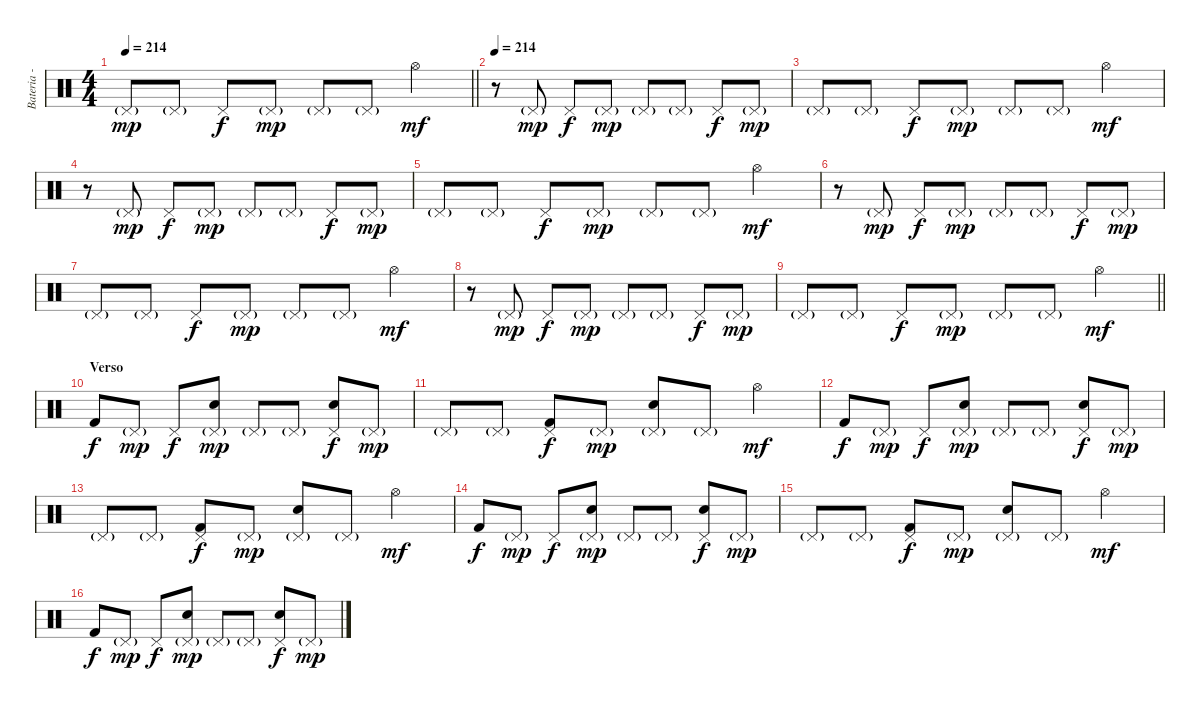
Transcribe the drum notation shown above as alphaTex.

\track ("Bateria - Larzon" "Bateria - ") {instrument percussion}
\staff {score}
\articulation defaults
\ts (4 4)
\tempo 214
\clef neutral
\barLineRight lightlight
\ks c "Pedal Hi-Hat (hit)"{g}.8{dy mp} "Pedal Hi-Hat (hit)"{g}.8 "Pedal Hi-Hat (hit)".8{dy f} "Pedal Hi-Hat (hit)"{g}.8{dy mp} "Pedal Hi-Hat (hit)"{g}.8 "Pedal Hi-Hat (hit)"{g}.8 "Hi-Hat (open)".4{dy mf}
|
\tempo 214
r.8 "Pedal Hi-Hat (hit)"{g}.8{dy mp} "Pedal Hi-Hat (hit)".8{dy f} "Pedal Hi-Hat (hit)"{g}.8{dy mp} "Pedal Hi-Hat (hit)"{g}.8 "Pedal Hi-Hat (hit)"{g}.8 "Pedal Hi-Hat (hit)".8{dy f} "Pedal Hi-Hat (hit)"{g}.8{dy mp} |
"Pedal Hi-Hat (hit)"{g}.8 "Pedal Hi-Hat (hit)"{g}.8 "Pedal Hi-Hat (hit)".8{dy f} "Pedal Hi-Hat (hit)"{g}.8{dy mp} "Pedal Hi-Hat (hit)"{g}.8 "Pedal Hi-Hat (hit)"{g}.8 "Hi-Hat (open)".4{dy mf} |
r.8 "Pedal Hi-Hat (hit)"{g}.8{dy mp} "Pedal Hi-Hat (hit)".8{dy f} "Pedal Hi-Hat (hit)"{g}.8{dy mp} "Pedal Hi-Hat (hit)"{g}.8 "Pedal Hi-Hat (hit)"{g}.8 "Pedal Hi-Hat (hit)".8{dy f} "Pedal Hi-Hat (hit)"{g}.8{dy mp} |
"Pedal Hi-Hat (hit)"{g}.8 "Pedal Hi-Hat (hit)"{g}.8 "Pedal Hi-Hat (hit)".8{dy f} "Pedal Hi-Hat (hit)"{g}.8{dy mp} "Pedal Hi-Hat (hit)"{g}.8 "Pedal Hi-Hat (hit)"{g}.8 "Hi-Hat (open)".4{dy mf} |
r.8 "Pedal Hi-Hat (hit)"{g}.8{dy mp} "Pedal Hi-Hat (hit)".8{dy f} "Pedal Hi-Hat (hit)"{g}.8{dy mp} "Pedal Hi-Hat (hit)"{g}.8 "Pedal Hi-Hat (hit)"{g}.8 "Pedal Hi-Hat (hit)".8{dy f} "Pedal Hi-Hat (hit)"{g}.8{dy mp} |
"Pedal Hi-Hat (hit)"{g}.8 "Pedal Hi-Hat (hit)"{g}.8 "Pedal Hi-Hat (hit)".8{dy f} "Pedal Hi-Hat (hit)"{g}.8{dy mp} "Pedal Hi-Hat (hit)"{g}.8 "Pedal Hi-Hat (hit)"{g}.8 "Hi-Hat (open)".4{dy mf} |
r.8 "Pedal Hi-Hat (hit)"{g}.8{dy mp} "Pedal Hi-Hat (hit)".8{dy f} "Pedal Hi-Hat (hit)"{g}.8{dy mp} "Pedal Hi-Hat (hit)"{g}.8 "Pedal Hi-Hat (hit)"{g}.8 "Pedal Hi-Hat (hit)".8{dy f} "Pedal Hi-Hat (hit)"{g}.8{dy mp} |
\barLineRight lightlight "Pedal Hi-Hat (hit)"{g}.8 "Pedal Hi-Hat (hit)"{g}.8 "Pedal Hi-Hat (hit)".8{dy f} "Pedal Hi-Hat (hit)"{g}.8{dy mp} "Pedal Hi-Hat (hit)"{g}.8 "Pedal Hi-Hat (hit)"{g}.8 "Hi-Hat (open)".4{dy mf}
|
\section ("" "Verso")
"Kick (hit) 2".8{dy f} "Pedal Hi-Hat (hit)"{g}.8{dy mp} "Pedal Hi-Hat (hit)".8{dy f} ("Pedal Hi-Hat (hit)"{g} "Electric Snare (hit)").8{dy mp} "Pedal Hi-Hat (hit)"{g}.8 "Pedal Hi-Hat (hit)"{g}.8 ("Pedal Hi-Hat (hit)" "Electric Snare (hit)").8{dy f} "Pedal Hi-Hat (hit)"{g}.8{dy mp} |
"Pedal Hi-Hat (hit)"{g}.8 "Pedal Hi-Hat (hit)"{g}.8 ("Pedal Hi-Hat (hit)" "Kick (hit) 2").8{dy f} "Pedal Hi-Hat (hit)"{g}.8{dy mp} ("Pedal Hi-Hat (hit)"{g} "Electric Snare (hit)").8 "Pedal Hi-Hat (hit)"{g}.8 "Hi-Hat (open)".4{dy mf} |
"Kick (hit) 2".8{dy f} "Pedal Hi-Hat (hit)"{g}.8{dy mp} "Pedal Hi-Hat (hit)".8{dy f} ("Pedal Hi-Hat (hit)"{g} "Electric Snare (hit)").8{dy mp} "Pedal Hi-Hat (hit)"{g}.8 "Pedal Hi-Hat (hit)"{g}.8 ("Pedal Hi-Hat (hit)" "Electric Snare (hit)").8{dy f} "Pedal Hi-Hat (hit)"{g}.8{dy mp} |
"Pedal Hi-Hat (hit)"{g}.8 "Pedal Hi-Hat (hit)"{g}.8 ("Pedal Hi-Hat (hit)" "Kick (hit) 2").8{dy f} "Pedal Hi-Hat (hit)"{g}.8{dy mp} ("Pedal Hi-Hat (hit)"{g} "Electric Snare (hit)").8 "Pedal Hi-Hat (hit)"{g}.8 "Hi-Hat (open)".4{dy mf} |
"Kick (hit) 2".8{dy f} "Pedal Hi-Hat (hit)"{g}.8{dy mp} "Pedal Hi-Hat (hit)".8{dy f} ("Pedal Hi-Hat (hit)"{g} "Electric Snare (hit)").8{dy mp} "Pedal Hi-Hat (hit)"{g}.8 "Pedal Hi-Hat (hit)"{g}.8 ("Pedal Hi-Hat (hit)" "Electric Snare (hit)").8{dy f} "Pedal Hi-Hat (hit)"{g}.8{dy mp} |
"Pedal Hi-Hat (hit)"{g}.8 "Pedal Hi-Hat (hit)"{g}.8 ("Pedal Hi-Hat (hit)" "Kick (hit) 2").8{dy f} "Pedal Hi-Hat (hit)"{g}.8{dy mp} ("Pedal Hi-Hat (hit)"{g} "Electric Snare (hit)").8 "Pedal Hi-Hat (hit)"{g}.8 "Hi-Hat (open)".4{dy mf} |
"Kick (hit) 2".8{dy f} "Pedal Hi-Hat (hit)"{g}.8{dy mp} "Pedal Hi-Hat (hit)".8{dy f} ("Pedal Hi-Hat (hit)"{g} "Electric Snare (hit)").8{dy mp} "Pedal Hi-Hat (hit)"{g}.8 "Pedal Hi-Hat (hit)"{g}.8 ("Pedal Hi-Hat (hit)" "Electric Snare (hit)").8{dy f} "Pedal Hi-Hat (hit)"{g}.8{dy mp}
